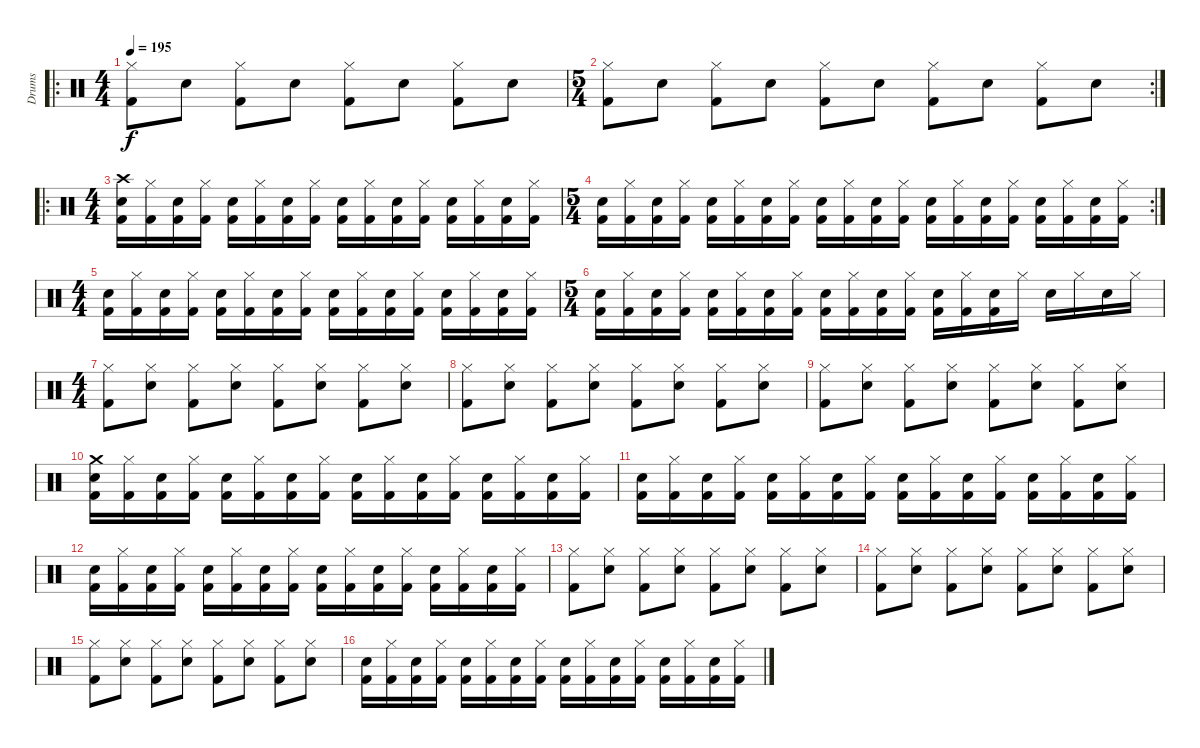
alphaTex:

\track ("Drums" "Drums") {instrument percussion}
\staff {score}
\articulation defaults
\ro
\ts (4 4)
\tempo 195
\clef neutral
\ks c
("Hi-Hat (closed)" "Kick (hit) 2").8{dy f} "Snare (hit) 2".8 ("Hi-Hat (closed)" "Kick (hit) 2").8 "Snare (hit) 2".8 ("Hi-Hat (closed)" "Kick (hit) 2").8 "Snare (hit) 2".8 ("Hi-Hat (closed)" "Kick (hit) 2").8 "Snare (hit) 2".8 |
\rc 2
\ts (5 4)
("Hi-Hat (closed)" "Kick (hit) 2").8 "Snare (hit) 2".8 ("Hi-Hat (closed)" "Kick (hit) 2").8 "Snare (hit) 2".8 ("Hi-Hat (closed)" "Kick (hit) 2").8 "Snare (hit) 2".8 ("Hi-Hat (closed)" "Kick (hit) 2").8 "Snare (hit) 2".8 ("Hi-Hat (closed)" "Kick (hit) 2").8 "Snare (hit) 2".8 |
\ro
\ts (4 4)
("Crash high (hit)" "Kick (hit) 2" "Snare (hit) 2").16 ("Hi-Hat (closed)" "Kick (hit) 2").16 ("Kick (hit) 2" "Snare (hit) 2").16 ("Hi-Hat (closed)" "Kick (hit) 2").16 ("Kick (hit) 2" "Snare (hit) 2").16 ("Hi-Hat (closed)" "Kick (hit) 2").16 ("Kick (hit) 2" "Snare (hit) 2").16 ("Hi-Hat (closed)" "Kick (hit) 2").16 ("Kick (hit) 2" "Snare (hit) 2").16 ("Hi-Hat (closed)" "Kick (hit) 2").16 ("Kick (hit) 2" "Snare (hit) 2").16 ("Hi-Hat (closed)" "Kick (hit) 2").16 ("Kick (hit) 2" "Snare (hit) 2").16 ("Hi-Hat (closed)" "Kick (hit) 2").16 ("Kick (hit) 2" "Snare (hit) 2").16 ("Hi-Hat (closed)" "Kick (hit) 2").16 |
\rc 2
\ts (5 4)
("Kick (hit) 2" "Snare (hit) 2").16 ("Hi-Hat (closed)" "Kick (hit) 2").16 ("Kick (hit) 2" "Snare (hit) 2").16 ("Hi-Hat (closed)" "Kick (hit) 2").16 ("Kick (hit) 2" "Snare (hit) 2").16 ("Hi-Hat (closed)" "Kick (hit) 2").16 ("Kick (hit) 2" "Snare (hit) 2").16 ("Hi-Hat (closed)" "Kick (hit) 2").16 ("Kick (hit) 2" "Snare (hit) 2").16 ("Hi-Hat (closed)" "Kick (hit) 2").16 ("Kick (hit) 2" "Snare (hit) 2").16 ("Hi-Hat (closed)" "Kick (hit) 2").16 ("Kick (hit) 2" "Snare (hit) 2").16 ("Hi-Hat (closed)" "Kick (hit) 2").16 ("Kick (hit) 2" "Snare (hit) 2").16 ("Hi-Hat (closed)" "Kick (hit) 2").16 ("Kick (hit) 2" "Snare (hit) 2").16 ("Hi-Hat (closed)" "Kick (hit) 2").16 ("Kick (hit) 2" "Snare (hit) 2").16 ("Hi-Hat (closed)" "Kick (hit) 2").16 |
\ts (4 4)
("Kick (hit) 2" "Snare (hit) 2").16 ("Hi-Hat (closed)" "Kick (hit) 2").16 ("Kick (hit) 2" "Snare (hit) 2").16 ("Hi-Hat (closed)" "Kick (hit) 2").16 ("Kick (hit) 2" "Snare (hit) 2").16 ("Hi-Hat (closed)" "Kick (hit) 2").16 ("Kick (hit) 2" "Snare (hit) 2").16 ("Hi-Hat (closed)" "Kick (hit) 2").16 ("Kick (hit) 2" "Snare (hit) 2").16 ("Hi-Hat (closed)" "Kick (hit) 2").16 ("Kick (hit) 2" "Snare (hit) 2").16 ("Hi-Hat (closed)" "Kick (hit) 2").16 ("Kick (hit) 2" "Snare (hit) 2").16 ("Hi-Hat (closed)" "Kick (hit) 2").16 ("Kick (hit) 2" "Snare (hit) 2").16 ("Hi-Hat (closed)" "Kick (hit) 2").16 |
\ts (5 4)
("Kick (hit) 2" "Snare (hit) 2").16 ("Hi-Hat (closed)" "Kick (hit) 2").16 ("Kick (hit) 2" "Snare (hit) 2").16 ("Hi-Hat (closed)" "Kick (hit) 2").16 ("Kick (hit) 2" "Snare (hit) 2").16 ("Hi-Hat (closed)" "Kick (hit) 2").16 ("Kick (hit) 2" "Snare (hit) 2").16 ("Hi-Hat (closed)" "Kick (hit) 2").16 ("Kick (hit) 2" "Snare (hit) 2").16 ("Hi-Hat (closed)" "Kick (hit) 2").16 ("Kick (hit) 2" "Snare (hit) 2").16 ("Hi-Hat (closed)" "Kick (hit) 2").16 ("Kick (hit) 2" "Snare (hit) 2").16 ("Hi-Hat (closed)" "Kick (hit) 2").16 ("Kick (hit) 2" "Snare (hit) 2").16 "Hi-Hat (closed)".16 "Snare (hit) 2".16 "Hi-Hat (closed)".16 "Snare (hit) 2".16 "Hi-Hat (closed)".16 |
\ts (4 4)
("Hi-Hat (closed)" "Kick (hit) 2").8 ("Hi-Hat (closed)" "Snare (hit) 2").8 ("Hi-Hat (closed)" "Kick (hit) 2").8 ("Hi-Hat (closed)" "Snare (hit) 2").8 ("Hi-Hat (closed)" "Kick (hit) 2").8 ("Hi-Hat (closed)" "Snare (hit) 2").8 ("Hi-Hat (closed)" "Kick (hit) 2").8 ("Hi-Hat (closed)" "Snare (hit) 2").8 |
("Hi-Hat (closed)" "Kick (hit) 2").8 ("Hi-Hat (closed)" "Snare (hit) 2").8 ("Hi-Hat (closed)" "Kick (hit) 2").8 ("Hi-Hat (closed)" "Snare (hit) 2").8 ("Hi-Hat (closed)" "Kick (hit) 2").8 ("Hi-Hat (closed)" "Snare (hit) 2").8 ("Hi-Hat (closed)" "Kick (hit) 2").8 ("Hi-Hat (closed)" "Snare (hit) 2").8 |
("Hi-Hat (closed)" "Kick (hit) 2").8 ("Hi-Hat (closed)" "Snare (hit) 2").8 ("Hi-Hat (closed)" "Kick (hit) 2").8 ("Hi-Hat (closed)" "Snare (hit) 2").8 ("Hi-Hat (closed)" "Kick (hit) 2").8 ("Hi-Hat (closed)" "Snare (hit) 2").8 ("Hi-Hat (closed)" "Kick (hit) 2").8 ("Hi-Hat (closed)" "Snare (hit) 2").8 |
("Crash medium (hit)" "Kick (hit) 2" "Snare (hit) 2").16 ("Hi-Hat (closed)" "Kick (hit) 2").16 ("Kick (hit) 2" "Snare (hit) 2").16 ("Hi-Hat (closed)" "Kick (hit) 2").16 ("Kick (hit) 2" "Snare (hit) 2").16 ("Hi-Hat (closed)" "Kick (hit) 2").16 ("Kick (hit) 2" "Snare (hit) 2").16 ("Hi-Hat (closed)" "Kick (hit) 2").16 ("Kick (hit) 2" "Snare (hit) 2").16 ("Hi-Hat (closed)" "Kick (hit) 2").16 ("Kick (hit) 2" "Snare (hit) 2").16 ("Hi-Hat (closed)" "Kick (hit) 2").16 ("Kick (hit) 2" "Snare (hit) 2").16 ("Hi-Hat (closed)" "Kick (hit) 2").16 ("Kick (hit) 2" "Snare (hit) 2").16 ("Hi-Hat (closed)" "Kick (hit) 2").16 |
("Kick (hit) 2" "Snare (hit) 2").16 ("Hi-Hat (closed)" "Kick (hit) 2").16 ("Kick (hit) 2" "Snare (hit) 2").16 ("Hi-Hat (closed)" "Kick (hit) 2").16 ("Kick (hit) 2" "Snare (hit) 2").16 ("Hi-Hat (closed)" "Kick (hit) 2").16 ("Kick (hit) 2" "Snare (hit) 2").16 ("Hi-Hat (closed)" "Kick (hit) 2").16 ("Kick (hit) 2" "Snare (hit) 2").16 ("Hi-Hat (closed)" "Kick (hit) 2").16 ("Kick (hit) 2" "Snare (hit) 2").16 ("Hi-Hat (closed)" "Kick (hit) 2").16 ("Kick (hit) 2" "Snare (hit) 2").16 ("Hi-Hat (closed)" "Kick (hit) 2").16 ("Kick (hit) 2" "Snare (hit) 2").16 ("Hi-Hat (closed)" "Kick (hit) 2").16 |
("Kick (hit) 2" "Snare (hit) 2").16 ("Hi-Hat (closed)" "Kick (hit) 2").16 ("Kick (hit) 2" "Snare (hit) 2").16 ("Hi-Hat (closed)" "Kick (hit) 2").16 ("Kick (hit) 2" "Snare (hit) 2").16 ("Hi-Hat (closed)" "Kick (hit) 2").16 ("Kick (hit) 2" "Snare (hit) 2").16 ("Hi-Hat (closed)" "Kick (hit) 2").16 ("Kick (hit) 2" "Snare (hit) 2").16 ("Hi-Hat (closed)" "Kick (hit) 2").16 ("Kick (hit) 2" "Snare (hit) 2").16 ("Hi-Hat (closed)" "Kick (hit) 2").16 ("Kick (hit) 2" "Snare (hit) 2").16 ("Hi-Hat (closed)" "Kick (hit) 2").16 ("Kick (hit) 2" "Snare (hit) 2").16 ("Hi-Hat (closed)" "Kick (hit) 2").16 |
("Hi-Hat (closed)" "Kick (hit) 2").8 ("Hi-Hat (closed)" "Snare (hit) 2").8 ("Hi-Hat (closed)" "Kick (hit) 2").8 ("Hi-Hat (closed)" "Snare (hit) 2").8 ("Hi-Hat (closed)" "Kick (hit) 2").8 ("Hi-Hat (closed)" "Snare (hit) 2").8 ("Hi-Hat (closed)" "Kick (hit) 2").8 ("Hi-Hat (closed)" "Snare (hit) 2").8 |
("Hi-Hat (closed)" "Kick (hit) 2").8 ("Hi-Hat (closed)" "Snare (hit) 2").8 ("Hi-Hat (closed)" "Kick (hit) 2").8 ("Hi-Hat (closed)" "Snare (hit) 2").8 ("Hi-Hat (closed)" "Kick (hit) 2").8 ("Hi-Hat (closed)" "Snare (hit) 2").8 ("Hi-Hat (closed)" "Kick (hit) 2").8 ("Hi-Hat (closed)" "Snare (hit) 2").8 |
("Hi-Hat (closed)" "Kick (hit) 2").8 ("Hi-Hat (closed)" "Snare (hit) 2").8 ("Hi-Hat (closed)" "Kick (hit) 2").8 ("Hi-Hat (closed)" "Snare (hit) 2").8 ("Hi-Hat (closed)" "Kick (hit) 2").8 ("Hi-Hat (closed)" "Snare (hit) 2").8 ("Hi-Hat (closed)" "Kick (hit) 2").8 ("Hi-Hat (closed)" "Snare (hit) 2").8 |
("Kick (hit) 2" "Snare (hit) 2").16 ("Hi-Hat (closed)" "Kick (hit) 2").16 ("Kick (hit) 2" "Snare (hit) 2").16 ("Hi-Hat (closed)" "Kick (hit) 2").16 ("Kick (hit) 2" "Snare (hit) 2").16 ("Hi-Hat (closed)" "Kick (hit) 2").16 ("Kick (hit) 2" "Snare (hit) 2").16 ("Hi-Hat (closed)" "Kick (hit) 2").16 ("Kick (hit) 2" "Snare (hit) 2").16 ("Hi-Hat (closed)" "Kick (hit) 2").16 ("Kick (hit) 2" "Snare (hit) 2").16 ("Hi-Hat (closed)" "Kick (hit) 2").16 ("Kick (hit) 2" "Snare (hit) 2").16 ("Hi-Hat (closed)" "Kick (hit) 2").16 ("Kick (hit) 2" "Snare (hit) 2").16 ("Hi-Hat (closed)" "Kick (hit) 2").16
